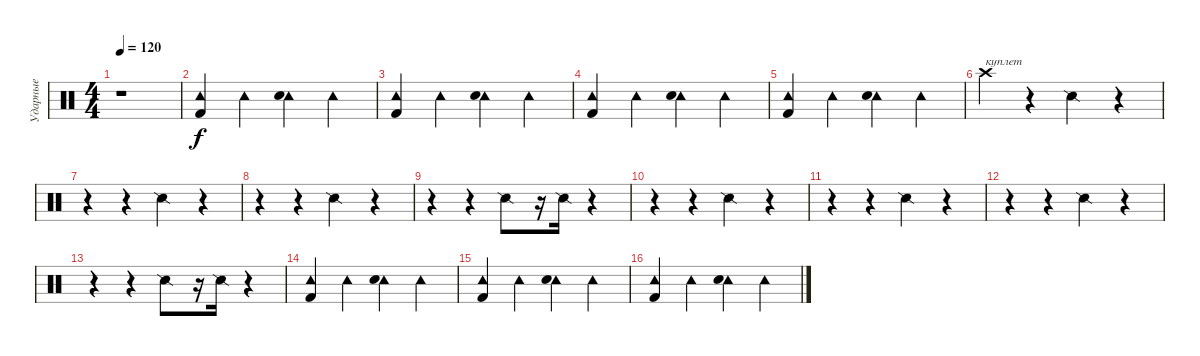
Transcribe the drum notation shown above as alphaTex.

\track ("Ударные" "Ударные") {instrument percussion}
\staff {score}
\articulation defaults
\ts (4 4)
\tempo 120
\clef neutral
\ks c
r.1{dy f} |
("Tambourine (hit)" "Kick (hit) 2").4 "Tambourine (hit)".4 ("Tambourine (hit)" "Electric Snare (hit)").4 "Tambourine (hit)".4 |
("Tambourine (hit)" "Kick (hit) 2").4 "Tambourine (hit)".4 ("Tambourine (hit)" "Electric Snare (hit)").4 "Tambourine (hit)".4 |
("Tambourine (hit)" "Kick (hit) 2").4 "Tambourine (hit)".4 ("Tambourine (hit)" "Electric Snare (hit)").4 "Tambourine (hit)".4 |
("Tambourine (hit)" "Kick (hit) 2").4 "Tambourine (hit)".4 ("Tambourine (hit)" "Electric Snare (hit)").4 "Tambourine (hit)".4 |
"Crash high (hit)".4{txt "куплет"} r.4 "Snare (side stick) 2".4 r.4 |
r.4 r.4 "Snare (side stick) 2".4 r.4 |
r.4 r.4 "Snare (side stick) 2".4 r.4 |
r.4 r.4 "Snare (side stick) 2".8 r.16 "Snare (side stick) 2".16 r.4 |
r.4 r.4 "Snare (side stick) 2".4 r.4 |
r.4 r.4 "Snare (side stick) 2".4 r.4 |
r.4 r.4 "Snare (side stick) 2".4 r.4 |
r.4 r.4 "Snare (side stick) 2".8 r.16 "Snare (side stick) 2".16 r.4 |
("Tambourine (hit)" "Kick (hit) 2").4 "Tambourine (hit)".4 ("Tambourine (hit)" "Electric Snare (hit)").4 "Tambourine (hit)".4 |
("Tambourine (hit)" "Kick (hit) 2").4 "Tambourine (hit)".4 ("Tambourine (hit)" "Electric Snare (hit)").4 "Tambourine (hit)".4 |
("Tambourine (hit)" "Kick (hit) 2").4 "Tambourine (hit)".4 ("Tambourine (hit)" "Electric Snare (hit)").4 "Tambourine (hit)".4
